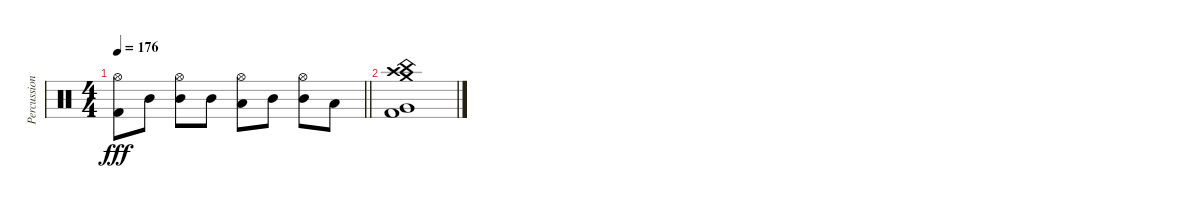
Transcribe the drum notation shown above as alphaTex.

\track ("Percussions" "Percussion") {instrument percussion}
\staff {score}
\articulation defaults
\ts (4 4)
\tempo 176
\clef neutral
\barLineRight lightlight
\ks c
("Hi-Hat (open)" "Kick (hit) 2").8{dy fff} "Mid Tom (hit)".8 ("Hi-Hat (open)" "Mid Tom (hit)").8 "Mid Tom (hit)".8 ("Hi-Hat (open)" "Low Tom (hit)").8 "Mid Tom (hit)".8 ("Hi-Hat (open)" "Mid Tom (hit)").8 "Low Tom (hit)".8 |
("Very Low Tom (hit)" "China (hit)" "Crash high (hit)" "Crash medium (hit)" "Kick (hit) 2").1
